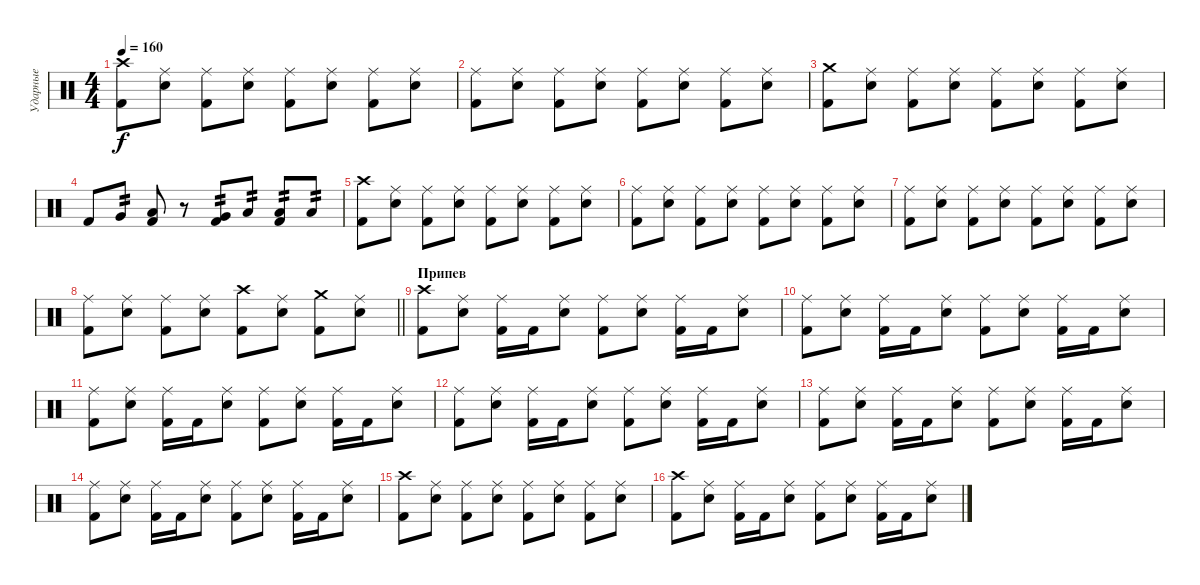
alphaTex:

\track ("Ударные" "Ударные") {instrument percussion}
\staff {score}
\articulation defaults
\ts (4 4)
\tempo 160
\clef neutral
\ks c
("Crash high (hit)" "Kick (hit) 2").8{dy f} ("Ride (middle)" "Electric Snare (hit)").8 ("Ride (middle)" "Kick (hit) 2").8 ("Ride (middle)" "Electric Snare (hit)").8 ("Ride (middle)" "Kick (hit) 2").8 ("Ride (middle)" "Electric Snare (hit)").8 ("Ride (middle)" "Kick (hit) 2").8 ("Ride (middle)" "Electric Snare (hit)").8 |
("Ride (middle)" "Kick (hit) 2").8 ("Ride (middle)" "Electric Snare (hit)").8 ("Ride (middle)" "Kick (hit) 2").8 ("Ride (middle)" "Electric Snare (hit)").8 ("Ride (middle)" "Kick (hit) 2").8 ("Ride (middle)" "Electric Snare (hit)").8 ("Ride (middle)" "Kick (hit) 2").8 ("Ride (middle)" "Electric Snare (hit)").8 |
("Crash medium (hit)" "Kick (hit) 2").8 ("Ride (middle)" "Electric Snare (hit)").8 ("Ride (middle)" "Kick (hit) 2").8 ("Ride (middle)" "Electric Snare (hit)").8 ("Ride (middle)" "Kick (hit) 2").8 ("Ride (middle)" "Electric Snare (hit)").8 ("Ride (middle)" "Kick (hit) 2").8 ("Ride (middle)" "Electric Snare (hit)").8 |
"Kick (hit) 2".8 "Very Low Tom (hit)".8{tp 2} ("Low Tom (hit)" "Kick (hit) 2").8 r.8 ("Very Low Tom (hit)" "Kick (hit) 2").8{tp 2} "Low Tom (hit)".8{tp 2} ("Low Tom (hit)" "Kick (hit) 2").8{tp 2} "Low Tom (hit)".8{tp 2} |
("Crash high (hit)" "Kick (hit) 2").8 ("Ride (middle)" "Electric Snare (hit)").8 ("Ride (middle)" "Kick (hit) 2").8 ("Ride (middle)" "Electric Snare (hit)").8 ("Ride (middle)" "Kick (hit) 2").8 ("Ride (middle)" "Electric Snare (hit)").8 ("Ride (middle)" "Kick (hit) 2").8 ("Ride (middle)" "Electric Snare (hit)").8 |
("Ride (middle)" "Kick (hit) 2").8 ("Ride (middle)" "Electric Snare (hit)").8 ("Ride (middle)" "Kick (hit) 2").8 ("Ride (middle)" "Electric Snare (hit)").8 ("Ride (middle)" "Kick (hit) 2").8 ("Ride (middle)" "Electric Snare (hit)").8 ("Ride (middle)" "Kick (hit) 2").8 ("Ride (middle)" "Electric Snare (hit)").8 |
("Ride (middle)" "Kick (hit) 2").8 ("Ride (middle)" "Electric Snare (hit)").8 ("Ride (middle)" "Kick (hit) 2").8 ("Ride (middle)" "Electric Snare (hit)").8 ("Ride (middle)" "Kick (hit) 2").8 ("Ride (middle)" "Electric Snare (hit)").8 ("Ride (middle)" "Kick (hit) 2").8 ("Ride (middle)" "Electric Snare (hit)").8 |
\barLineRight lightlight
("Ride (middle)" "Kick (hit) 2").8 ("Ride (middle)" "Electric Snare (hit)").8 ("Ride (middle)" "Kick (hit) 2").8 ("Ride (middle)" "Electric Snare (hit)").8 ("Crash high (hit)" "Kick (hit) 2").8 ("Ride (middle)" "Electric Snare (hit)").8 ("Crash medium (hit)" "Kick (hit) 2").8 ("Ride (middle)" "Electric Snare (hit)").8 |
\section ("" "Припев")
("Crash high (hit)" "Kick (hit) 2").8 ("Ride (middle)" "Electric Snare (hit)").8 ("Ride (middle)" "Kick (hit) 2").16 "Kick (hit) 2".16 ("Ride (middle)" "Electric Snare (hit)").8 ("Ride (middle)" "Kick (hit) 2").8 ("Ride (middle)" "Electric Snare (hit)").8 ("Ride (middle)" "Kick (hit) 2").16 "Kick (hit) 2".16 ("Ride (middle)" "Electric Snare (hit)").8 |
("Ride (middle)" "Kick (hit) 2").8 ("Ride (middle)" "Electric Snare (hit)").8 ("Ride (middle)" "Kick (hit) 2").16 "Kick (hit) 2".16 ("Ride (middle)" "Electric Snare (hit)").8 ("Ride (middle)" "Kick (hit) 2").8 ("Ride (middle)" "Electric Snare (hit)").8 ("Ride (middle)" "Kick (hit) 2").16 "Kick (hit) 2".16 ("Ride (middle)" "Electric Snare (hit)").8 |
("Ride (middle)" "Kick (hit) 2").8 ("Ride (middle)" "Electric Snare (hit)").8 ("Ride (middle)" "Kick (hit) 2").16 "Kick (hit) 2".16 ("Ride (middle)" "Electric Snare (hit)").8 ("Ride (middle)" "Kick (hit) 2").8 ("Ride (middle)" "Electric Snare (hit)").8 ("Ride (middle)" "Kick (hit) 2").16 "Kick (hit) 2".16 ("Ride (middle)" "Electric Snare (hit)").8 |
("Ride (middle)" "Kick (hit) 2").8 ("Ride (middle)" "Electric Snare (hit)").8 ("Ride (middle)" "Kick (hit) 2").16 "Kick (hit) 2".16 ("Ride (middle)" "Electric Snare (hit)").8 ("Ride (middle)" "Kick (hit) 2").8 ("Ride (middle)" "Electric Snare (hit)").8 ("Ride (middle)" "Kick (hit) 2").16 "Kick (hit) 2".16 ("Ride (middle)" "Electric Snare (hit)").8 |
("Ride (middle)" "Kick (hit) 2").8 ("Ride (middle)" "Electric Snare (hit)").8 ("Ride (middle)" "Kick (hit) 2").16 "Kick (hit) 2".16 ("Ride (middle)" "Electric Snare (hit)").8 ("Ride (middle)" "Kick (hit) 2").8 ("Ride (middle)" "Electric Snare (hit)").8 ("Ride (middle)" "Kick (hit) 2").16 "Kick (hit) 2".16 ("Ride (middle)" "Electric Snare (hit)").8 |
("Ride (middle)" "Kick (hit) 2").8 ("Ride (middle)" "Electric Snare (hit)").8 ("Ride (middle)" "Kick (hit) 2").16 "Kick (hit) 2".16 ("Ride (middle)" "Electric Snare (hit)").8 ("Ride (middle)" "Kick (hit) 2").8 ("Ride (middle)" "Electric Snare (hit)").8 ("Ride (middle)" "Kick (hit) 2").16 "Kick (hit) 2".16 ("Ride (middle)" "Electric Snare (hit)").8 |
("Crash high (hit)" "Kick (hit) 2").8 ("Ride (middle)" "Electric Snare (hit)").8 ("Ride (middle)" "Kick (hit) 2").8 ("Ride (middle)" "Electric Snare (hit)").8 ("Ride (middle)" "Kick (hit) 2").8 ("Ride (middle)" "Electric Snare (hit)").8 ("Ride (middle)" "Kick (hit) 2").8 ("Ride (middle)" "Electric Snare (hit)").8 |
("Crash high (hit)" "Kick (hit) 2").8 ("Ride (middle)" "Electric Snare (hit)").8 ("Ride (middle)" "Kick (hit) 2").16 "Kick (hit) 2".16 ("Ride (middle)" "Electric Snare (hit)").8 ("Ride (middle)" "Kick (hit) 2").8 ("Ride (middle)" "Electric Snare (hit)").8 ("Ride (middle)" "Kick (hit) 2").16 "Kick (hit) 2".16 ("Ride (middle)" "Electric Snare (hit)").8
